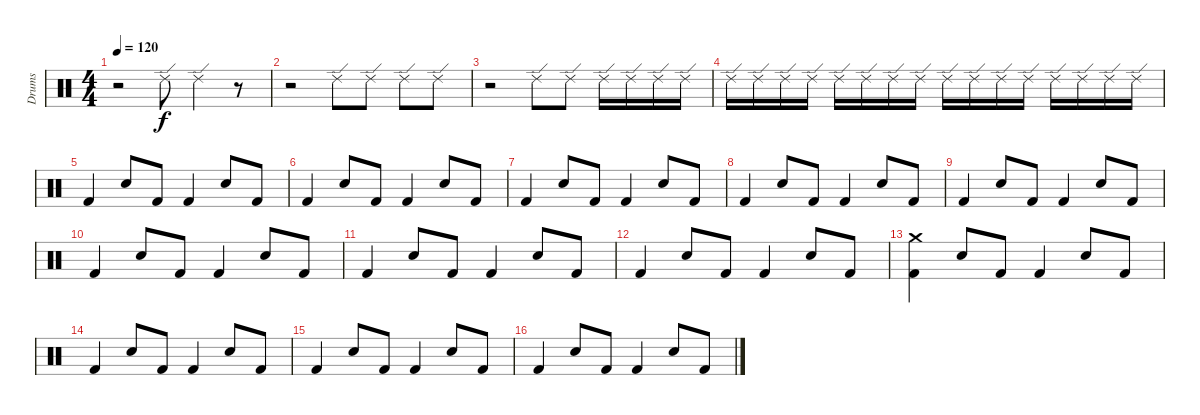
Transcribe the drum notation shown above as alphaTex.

\track ("Drums" "Drums") {instrument percussion}
\staff {score}
\articulation defaults
\ts (4 4)
\tempo 120
\clef neutral
\ks c
r.2{dy f} "Ride (edge) 2".8 "Ride (edge) 2".4 r.8 |
r.2 "Ride (edge) 2".8 "Ride (edge) 2".8 "Ride (edge) 2".8 "Ride (edge) 2".8 |
r.2 "Ride (edge) 2".8 "Ride (edge) 2".8 "Ride (edge) 2".16 "Ride (edge) 2".16 "Ride (edge) 2".16 "Ride (edge) 2".16 |
"Ride (edge) 2".16 "Ride (edge) 2".16 "Ride (edge) 2".16 "Ride (edge) 2".16 "Ride (edge) 2".16 "Ride (edge) 2".16 "Ride (edge) 2".16 "Ride (edge) 2".16 "Ride (edge) 2".16 "Ride (edge) 2".16 "Ride (edge) 2".16 "Ride (edge) 2".16 "Ride (edge) 2".16 "Ride (edge) 2".16 "Ride (edge) 2".16 "Ride (edge) 2".16 |
"Kick (hit) 2".4 "Snare (hit) 2".8 "Kick (hit) 2".8 "Kick (hit) 2".4 "Snare (hit) 2".8 "Kick (hit) 2".8 |
"Kick (hit) 2".4 "Snare (hit) 2".8 "Kick (hit) 2".8 "Kick (hit) 2".4 "Snare (hit) 2".8 "Kick (hit) 2".8 |
"Kick (hit) 2".4 "Snare (hit) 2".8 "Kick (hit) 2".8 "Kick (hit) 2".4 "Snare (hit) 2".8 "Kick (hit) 2".8 |
"Kick (hit) 2".4 "Snare (hit) 2".8 "Kick (hit) 2".8 "Kick (hit) 2".4 "Snare (hit) 2".8 "Kick (hit) 2".8 |
"Kick (hit) 2".4 "Snare (hit) 2".8 "Kick (hit) 2".8 "Kick (hit) 2".4 "Snare (hit) 2".8 "Kick (hit) 2".8 |
"Kick (hit) 2".4 "Snare (hit) 2".8 "Kick (hit) 2".8 "Kick (hit) 2".4 "Snare (hit) 2".8 "Kick (hit) 2".8 |
"Kick (hit) 2".4 "Snare (hit) 2".8 "Kick (hit) 2".8 "Kick (hit) 2".4 "Snare (hit) 2".8 "Kick (hit) 2".8 |
"Kick (hit) 2".4 "Snare (hit) 2".8 "Kick (hit) 2".8 "Kick (hit) 2".4 "Snare (hit) 2".8 "Kick (hit) 2".8 |
("Kick (hit) 2" "Crash medium (hit)").4 "Snare (hit) 2".8 "Kick (hit) 2".8 "Kick (hit) 2".4 "Snare (hit) 2".8 "Kick (hit) 2".8 |
"Kick (hit) 2".4 "Snare (hit) 2".8 "Kick (hit) 2".8 "Kick (hit) 2".4 "Snare (hit) 2".8 "Kick (hit) 2".8 |
"Kick (hit) 2".4 "Snare (hit) 2".8 "Kick (hit) 2".8 "Kick (hit) 2".4 "Snare (hit) 2".8 "Kick (hit) 2".8 |
"Kick (hit) 2".4 "Snare (hit) 2".8 "Kick (hit) 2".8 "Kick (hit) 2".4 "Snare (hit) 2".8 "Kick (hit) 2".8
